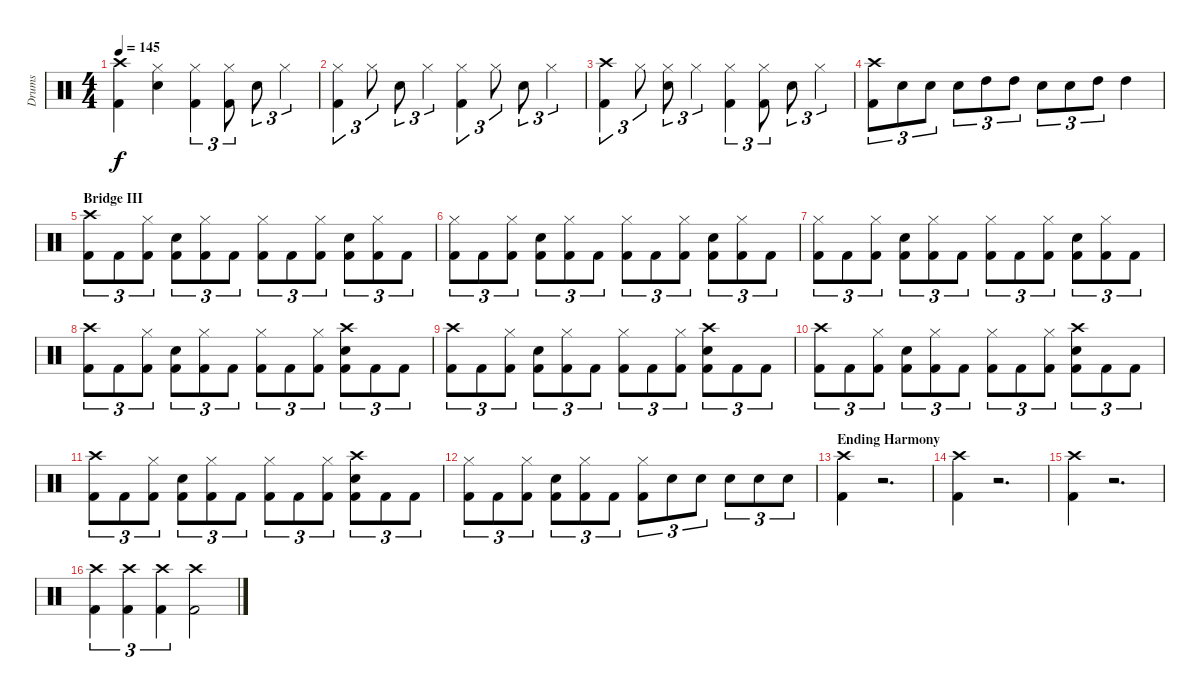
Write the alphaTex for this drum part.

\track ("Drums" "Drums") {instrument percussion}
\staff {score}
\articulation defaults
\ts (4 4)
\tempo 145
\clef neutral
\ks c
("Crash high (hit)" "Kick (hit) 2").4{dy f} ("Hi-Hat (closed)" "Snare (hit) 2").4 ("Hi-Hat (closed)" "Kick (hit) 2").4{tu (3 2)} ("Hi-Hat (closed)" "Kick (hit) 2").8{tu (3 2)} "Snare (hit) 2".8{tu (3 2)} "Hi-Hat (closed)".4{tu (3 2)} |
("Kick (hit) 2" "Hi-Hat (closed)").4{tu (3 2)} "Hi-Hat (closed)".8{tu (3 2)} "Snare (hit) 2".8{tu (3 2)} "Hi-Hat (closed)".4{tu (3 2)} ("Hi-Hat (closed)" "Kick (hit) 2").4{tu (3 2)} "Hi-Hat (closed)".8{tu (3 2)} "Snare (hit) 2".8{tu (3 2)} "Hi-Hat (closed)".4{tu (3 2)} |
("Crash high (hit)" "Kick (hit) 2").4{tu (3 2)} "Hi-Hat (closed)".8{tu (3 2)} ("Hi-Hat (closed)" "Snare (hit) 2").8{tu (3 2)} "Hi-Hat (closed)".4{tu (3 2)} ("Hi-Hat (closed)" "Kick (hit) 2").4{tu (3 2)} ("Hi-Hat (closed)" "Kick (hit) 2").8{tu (3 2)} "Snare (hit) 2".8{tu (3 2)} "Hi-Hat (closed)".4{tu (3 2)} |
("Crash high (hit)" "Kick (hit) 2").8{tu (3 2)} "Snare (hit) 2".8{tu (3 2)} "Snare (hit) 2".8{tu (3 2)} "Snare (hit) 2".8{tu (3 2)} "High Tom (hit)".8{tu (3 2)} "High Tom (hit)".8{tu (3 2)} "Snare (hit) 2".8{tu (3 2)} "Snare (hit) 2".8{tu (3 2)} "High Tom (hit)".8{tu (3 2)} "High Tom (hit)".4 |
\section ("" "Bridge III")
("Crash high (hit)" "Kick (hit) 2").8{tu (3 2)} "Kick (hit) 2".8{tu (3 2)} ("Hi-Hat (closed)" "Kick (hit) 2").8{tu (3 2)} ("Snare (hit) 2" "Kick (hit) 2").8{tu (3 2)} ("Hi-Hat (closed)" "Kick (hit) 2").8{tu (3 2)} "Kick (hit) 2".8{tu (3 2)} ("Hi-Hat (closed)" "Kick (hit) 2").8{tu (3 2)} "Kick (hit) 2".8{tu (3 2)} ("Hi-Hat (closed)" "Kick (hit) 2").8{tu (3 2)} ("Snare (hit) 2" "Kick (hit) 2").8{tu (3 2)} ("Hi-Hat (closed)" "Kick (hit) 2").8{tu (3 2)} "Kick (hit) 2".8{tu (3 2)} |
("Kick (hit) 2" "Hi-Hat (closed)").8{tu (3 2)} "Kick (hit) 2".8{tu (3 2)} ("Hi-Hat (closed)" "Kick (hit) 2").8{tu (3 2)} ("Snare (hit) 2" "Kick (hit) 2").8{tu (3 2)} ("Hi-Hat (closed)" "Kick (hit) 2").8{tu (3 2)} "Kick (hit) 2".8{tu (3 2)} ("Hi-Hat (closed)" "Kick (hit) 2").8{tu (3 2)} "Kick (hit) 2".8{tu (3 2)} ("Hi-Hat (closed)" "Kick (hit) 2").8{tu (3 2)} ("Snare (hit) 2" "Kick (hit) 2").8{tu (3 2)} ("Hi-Hat (closed)" "Kick (hit) 2").8{tu (3 2)} "Kick (hit) 2".8{tu (3 2)} |
("Kick (hit) 2" "Hi-Hat (closed)").8{tu (3 2)} "Kick (hit) 2".8{tu (3 2)} ("Hi-Hat (closed)" "Kick (hit) 2").8{tu (3 2)} ("Snare (hit) 2" "Kick (hit) 2").8{tu (3 2)} ("Hi-Hat (closed)" "Kick (hit) 2").8{tu (3 2)} "Kick (hit) 2".8{tu (3 2)} ("Hi-Hat (closed)" "Kick (hit) 2").8{tu (3 2)} "Kick (hit) 2".8{tu (3 2)} ("Hi-Hat (closed)" "Kick (hit) 2").8{tu (3 2)} ("Snare (hit) 2" "Kick (hit) 2").8{tu (3 2)} ("Hi-Hat (closed)" "Kick (hit) 2").8{tu (3 2)} "Kick (hit) 2".8{tu (3 2)} |
("Crash high (hit)" "Kick (hit) 2").8{tu (3 2)} "Kick (hit) 2".8{tu (3 2)} ("Hi-Hat (closed)" "Kick (hit) 2").8{tu (3 2)} ("Snare (hit) 2" "Kick (hit) 2").8{tu (3 2)} ("Hi-Hat (closed)" "Kick (hit) 2").8{tu (3 2)} "Kick (hit) 2".8{tu (3 2)} ("Hi-Hat (closed)" "Kick (hit) 2").8{tu (3 2)} "Kick (hit) 2".8{tu (3 2)} ("Hi-Hat (closed)" "Kick (hit) 2").8{tu (3 2)} ("Crash high (hit)" "Snare (hit) 2" "Kick (hit) 2").8{tu (3 2)} "Kick (hit) 2".8{tu (3 2)} "Kick (hit) 2".8{tu (3 2)} |
("Crash high (hit)" "Kick (hit) 2").8{tu (3 2)} "Kick (hit) 2".8{tu (3 2)} ("Hi-Hat (closed)" "Kick (hit) 2").8{tu (3 2)} ("Snare (hit) 2" "Kick (hit) 2").8{tu (3 2)} ("Hi-Hat (closed)" "Kick (hit) 2").8{tu (3 2)} "Kick (hit) 2".8{tu (3 2)} ("Hi-Hat (closed)" "Kick (hit) 2").8{tu (3 2)} "Kick (hit) 2".8{tu (3 2)} ("Hi-Hat (closed)" "Kick (hit) 2").8{tu (3 2)} ("Crash high (hit)" "Snare (hit) 2" "Kick (hit) 2").8{tu (3 2)} "Kick (hit) 2".8{tu (3 2)} "Kick (hit) 2".8{tu (3 2)} |
("Crash high (hit)" "Kick (hit) 2").8{tu (3 2)} "Kick (hit) 2".8{tu (3 2)} ("Hi-Hat (closed)" "Kick (hit) 2").8{tu (3 2)} ("Snare (hit) 2" "Kick (hit) 2").8{tu (3 2)} ("Hi-Hat (closed)" "Kick (hit) 2").8{tu (3 2)} "Kick (hit) 2".8{tu (3 2)} ("Hi-Hat (closed)" "Kick (hit) 2").8{tu (3 2)} "Kick (hit) 2".8{tu (3 2)} ("Hi-Hat (closed)" "Kick (hit) 2").8{tu (3 2)} ("Crash high (hit)" "Snare (hit) 2" "Kick (hit) 2").8{tu (3 2)} "Kick (hit) 2".8{tu (3 2)} "Kick (hit) 2".8{tu (3 2)} |
("Crash high (hit)" "Kick (hit) 2").8{tu (3 2)} "Kick (hit) 2".8{tu (3 2)} ("Hi-Hat (closed)" "Kick (hit) 2").8{tu (3 2)} ("Snare (hit) 2" "Kick (hit) 2").8{tu (3 2)} ("Hi-Hat (closed)" "Kick (hit) 2").8{tu (3 2)} "Kick (hit) 2".8{tu (3 2)} ("Hi-Hat (closed)" "Kick (hit) 2").8{tu (3 2)} "Kick (hit) 2".8{tu (3 2)} ("Hi-Hat (closed)" "Kick (hit) 2").8{tu (3 2)} ("Crash high (hit)" "Snare (hit) 2" "Kick (hit) 2").8{tu (3 2)} "Kick (hit) 2".8{tu (3 2)} "Kick (hit) 2".8{tu (3 2)} |
("Hi-Hat (closed)" "Kick (hit) 2").8{tu (3 2)} "Kick (hit) 2".8{tu (3 2)} ("Hi-Hat (closed)" "Kick (hit) 2").8{tu (3 2)} ("Snare (hit) 2" "Kick (hit) 2").8{tu (3 2)} ("Hi-Hat (closed)" "Kick (hit) 2").8{tu (3 2)} "Kick (hit) 2".8{tu (3 2)} ("Hi-Hat (closed)" "Kick (hit) 2").8{tu (3 2)} "Snare (hit) 2".8{tu (3 2)} "Snare (hit) 2".8{tu (3 2)} "Snare (hit) 2".8{tu (3 2)} "Snare (hit) 2".8{tu (3 2)} "Snare (hit) 2".8{tu (3 2)} |
\section ("" "Ending Harmony")
("Crash high (hit)" "Kick (hit) 2").4 r.2{d} |
("Crash high (hit)" "Kick (hit) 2").4 r.2{d} |
("Crash high (hit)" "Kick (hit) 2").4 r.2{d} |
("Kick (hit) 2" "Crash high (hit)").4{tu (3 2)} ("Kick (hit) 2" "Crash high (hit)").4{tu (3 2)} ("Kick (hit) 2" "Crash high (hit)").4{tu (3 2)} ("Kick (hit) 2" "Crash high (hit)").2
